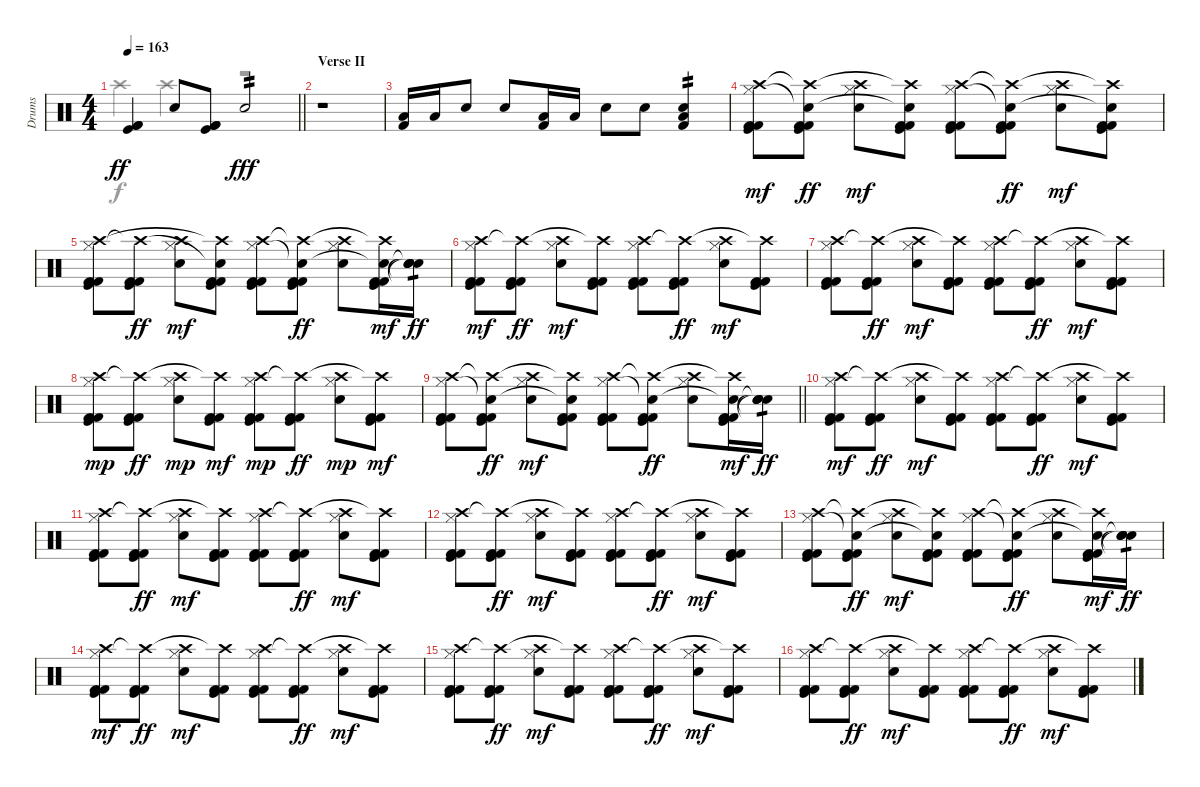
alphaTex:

\track ("Drums" "Drums") {instrument percussion}
\staff {score}
\articulation defaults
\voice
\ts (4 4)
\tempo 163
\clef neutral
\barLineRight lightlight
\ks c
("Kick (hit) 2" "Kick (hit) 2" "Kick (hit)").4{dy ff} "Electric Snare (hit)".8 ("Kick (hit) 2" "Kick (hit) 2" "Kick (hit)").8 "Electric Snare (hit)".2{tp 2 dy fff} |
\section ("" "Verse II")
r.1 |
("Low Floor Tom (hit)" "Kick (hit) 2").16 "Low Tom (hit)".16 "Electric Snare (hit)".8 "Electric Snare (hit)".8 ("Low Floor Tom (hit)" "Kick (hit) 2").16 "Low Tom (hit)".16 "Electric Snare (hit)".8 "Electric Snare (hit)".8 ("Kick (hit) 2" "Low Tom (hit)" "Electric Snare (hit)").4{tp 2} |
("Kick (hit) 2" "Kick (hit) 2" "Kick (hit)" "Hi-Hat (closed)" "Crash high (hit)").8{dy mf} ("Kick (hit) 2" "Kick (hit) 2" "Kick (hit)" "Snare (hit)"{t} "Crash high (hit)"{t}).8{dy ff} ("Electric Snare (hit)" "Hi-Hat (closed)" "Crash high (hit)").8{dy mf} ("Kick (hit) 2" "Kick (hit) 2" "Kick (hit)" "Snare (hit)"{t} "Crash high (hit)"{t}).8 ("Kick (hit) 2" "Kick (hit) 2" "Kick (hit)" "Hi-Hat (closed)" "Crash high (hit)").8 ("Kick (hit) 2" "Kick (hit) 2" "Kick (hit)" "Snare (hit)"{t} "Crash high (hit)"{t}).8{dy ff} ("Electric Snare (hit)" "Hi-Hat (closed)" "Crash high (hit)").8{dy mf} ("Kick (hit) 2" "Kick (hit) 2" "Kick (hit)" "Snare (hit)"{t} "Crash high (hit)"{t}).8 |
("Kick (hit) 2" "Kick (hit) 2" "Kick (hit)" "Hi-Hat (closed)" "Crash high (hit)").8 ("Kick (hit) 2" "Kick (hit) 2" "Kick (hit)" "Crash high (hit)"{t}).8{dy ff} ("Electric Snare (hit)" "Hi-Hat (closed)" "Crash high (hit)").8{dy mf} ("Kick (hit) 2" "Kick (hit) 2" "Kick (hit)" "Snare (hit)"{t} "Crash high (hit)"{t}).8 ("Kick (hit) 2" "Kick (hit) 2" "Kick (hit)" "Hi-Hat (closed)" "Crash high (hit)").8 ("Kick (hit) 2" "Kick (hit) 2" "Kick (hit)" "Snare (hit)"{t} "Crash high (hit)"{t}).8{dy ff} ("Electric Snare (hit)" "Hi-Hat (closed)" "Crash high (hit)").8 ("Kick (hit) 2" "Kick (hit) 2" "Kick (hit)" "Snare (hit)"{t} "Crash high (hit)"{t}).16{dy mf} ("Snare (hit)"{t} "Electric Snare (hit)" "Snare (hit)"{t} "Snare (hit)"{t}).16{tp 1 dy ff} |
("Kick (hit) 2" "Kick (hit) 2" "Kick (hit)" "Hi-Hat (closed)" "Crash high (hit)").8{dy mf} ("Kick (hit) 2" "Kick (hit) 2" "Kick (hit)" "Crash high (hit)"{t}).8{dy ff} ("Electric Snare (hit)" "Hi-Hat (closed)" "Crash high (hit)").8{dy mf} ("Kick (hit) 2" "Kick (hit) 2" "Kick (hit)" "Crash high (hit)"{t}).8 ("Kick (hit) 2" "Kick (hit) 2" "Kick (hit)" "Hi-Hat (closed)" "Crash high (hit)").8 ("Kick (hit) 2" "Kick (hit) 2" "Kick (hit)" "Crash high (hit)"{t}).8{dy ff} ("Electric Snare (hit)" "Hi-Hat (closed)" "Crash high (hit)").8{dy mf} ("Kick (hit) 2" "Kick (hit) 2" "Kick (hit)" "Crash high (hit)"{t}).8 |
("Kick (hit) 2" "Kick (hit) 2" "Kick (hit)" "Hi-Hat (closed)" "Crash high (hit)").8 ("Kick (hit) 2" "Kick (hit) 2" "Kick (hit)" "Crash high (hit)"{t}).8{dy ff} ("Electric Snare (hit)" "Hi-Hat (closed)" "Crash high (hit)").8{dy mf} ("Kick (hit) 2" "Kick (hit) 2" "Kick (hit)" "Crash high (hit)"{t}).8 ("Kick (hit) 2" "Kick (hit) 2" "Kick (hit)" "Hi-Hat (closed)" "Crash high (hit)").8 ("Kick (hit) 2" "Kick (hit) 2" "Kick (hit)" "Crash high (hit)"{t}).8{dy ff} ("Electric Snare (hit)" "Hi-Hat (closed)" "Crash high (hit)").8{dy mf} ("Kick (hit) 2" "Kick (hit) 2" "Kick (hit)" "Crash high (hit)"{t}).8 |
("Kick (hit) 2" "Kick (hit) 2" "Kick (hit)" "Hi-Hat (closed)" "Crash high (hit)").8{dy mp} ("Kick (hit) 2" "Kick (hit) 2" "Kick (hit)" "Crash high (hit)"{t}).8{dy ff} ("Electric Snare (hit)" "Hi-Hat (closed)" "Crash high (hit)").8{dy mp} ("Kick (hit) 2" "Kick (hit) 2" "Kick (hit)" "Crash high (hit)"{t}).8{dy mf} ("Kick (hit) 2" "Kick (hit) 2" "Kick (hit)" "Hi-Hat (closed)" "Crash high (hit)").8{dy mp} ("Kick (hit) 2" "Kick (hit) 2" "Kick (hit)" "Crash high (hit)"{t}).8{dy ff} ("Electric Snare (hit)" "Hi-Hat (closed)" "Crash high (hit)").8{dy mp} ("Kick (hit) 2" "Kick (hit) 2" "Kick (hit)" "Crash high (hit)"{t}).8{dy mf} |
\barLineRight lightlight
("Kick (hit) 2" "Kick (hit) 2" "Kick (hit)" "Hi-Hat (closed)" "Crash high (hit)").8 ("Kick (hit) 2" "Kick (hit) 2" "Kick (hit)" "Snare (hit)"{t} "Crash high (hit)"{t}).8{dy ff} ("Electric Snare (hit)" "Hi-Hat (closed)" "Crash high (hit)").8{dy mf} ("Kick (hit) 2" "Kick (hit) 2" "Kick (hit)" "Snare (hit)"{t} "Crash high (hit)"{t}).8 ("Kick (hit) 2" "Kick (hit) 2" "Kick (hit)" "Hi-Hat (closed)" "Crash high (hit)").8 ("Kick (hit) 2" "Kick (hit) 2" "Kick (hit)" "Snare (hit)"{t} "Crash high (hit)"{t}).8{dy ff} ("Electric Snare (hit)" "Hi-Hat (closed)" "Crash high (hit)").8 ("Kick (hit) 2" "Kick (hit) 2" "Kick (hit)" "Snare (hit)"{t} "Crash high (hit)"{t}).16{dy mf} ("Snare (hit)"{t} "Electric Snare (hit)" "Snare (hit)"{t} "Snare (hit)"{t}).16{tp 1 dy ff} |
("Kick (hit) 2" "Kick (hit) 2" "Kick (hit)" "Hi-Hat (closed)" "Crash high (hit)").8{dy mf} ("Kick (hit) 2" "Kick (hit) 2" "Kick (hit)" "Crash high (hit)"{t}).8{dy ff} ("Electric Snare (hit)" "Hi-Hat (closed)" "Crash high (hit)").8{dy mf} ("Kick (hit) 2" "Kick (hit) 2" "Kick (hit)" "Crash high (hit)"{t}).8 ("Kick (hit) 2" "Kick (hit) 2" "Kick (hit)" "Hi-Hat (closed)" "Crash high (hit)").8 ("Kick (hit) 2" "Kick (hit) 2" "Kick (hit)" "Crash high (hit)"{t}).8{dy ff} ("Electric Snare (hit)" "Hi-Hat (closed)" "Crash high (hit)").8{dy mf} ("Kick (hit) 2" "Kick (hit) 2" "Kick (hit)" "Crash high (hit)"{t}).8 |
("Kick (hit) 2" "Kick (hit) 2" "Kick (hit)" "Hi-Hat (closed)" "Crash high (hit)").8 ("Kick (hit) 2" "Kick (hit) 2" "Kick (hit)" "Crash high (hit)"{t}).8{dy ff} ("Electric Snare (hit)" "Hi-Hat (closed)" "Crash high (hit)").8{dy mf} ("Kick (hit) 2" "Kick (hit) 2" "Kick (hit)" "Crash high (hit)"{t}).8 ("Kick (hit) 2" "Kick (hit) 2" "Kick (hit)" "Hi-Hat (closed)" "Crash high (hit)").8 ("Kick (hit) 2" "Kick (hit) 2" "Kick (hit)" "Crash high (hit)"{t}).8{dy ff} ("Electric Snare (hit)" "Hi-Hat (closed)" "Crash high (hit)").8{dy mf} ("Kick (hit) 2" "Kick (hit) 2" "Kick (hit)" "Crash high (hit)"{t}).8 |
("Kick (hit) 2" "Kick (hit) 2" "Kick (hit)" "Hi-Hat (closed)" "Crash high (hit)").8 ("Kick (hit) 2" "Kick (hit) 2" "Kick (hit)" "Crash high (hit)"{t}).8{dy ff} ("Electric Snare (hit)" "Hi-Hat (closed)" "Crash high (hit)").8{dy mf} ("Kick (hit) 2" "Kick (hit) 2" "Kick (hit)" "Crash high (hit)"{t}).8 ("Kick (hit) 2" "Kick (hit) 2" "Kick (hit)" "Hi-Hat (closed)" "Crash high (hit)").8 ("Kick (hit) 2" "Kick (hit) 2" "Kick (hit)" "Crash high (hit)"{t}).8{dy ff} ("Electric Snare (hit)" "Hi-Hat (closed)" "Crash high (hit)").8{dy mf} ("Kick (hit) 2" "Kick (hit) 2" "Kick (hit)" "Crash high (hit)"{t}).8 |
("Kick (hit) 2" "Kick (hit) 2" "Kick (hit)" "Hi-Hat (closed)" "Crash high (hit)").8 ("Kick (hit) 2" "Kick (hit) 2" "Kick (hit)" "Snare (hit)"{t} "Crash high (hit)"{t}).8{dy ff} ("Electric Snare (hit)" "Hi-Hat (closed)" "Crash high (hit)").8{dy mf} ("Kick (hit) 2" "Kick (hit) 2" "Kick (hit)" "Snare (hit)"{t} "Crash high (hit)"{t}).8 ("Kick (hit) 2" "Kick (hit) 2" "Kick (hit)" "Hi-Hat (closed)" "Crash high (hit)").8 ("Kick (hit) 2" "Kick (hit) 2" "Kick (hit)" "Snare (hit)"{t} "Crash high (hit)"{t}).8{dy ff} ("Electric Snare (hit)" "Hi-Hat (closed)" "Crash high (hit)").8 ("Kick (hit) 2" "Kick (hit) 2" "Kick (hit)" "Snare (hit)"{t} "Crash high (hit)"{t}).16{dy mf} ("Snare (hit)"{t} "Electric Snare (hit)" "Snare (hit)"{t} "Snare (hit)"{t}).16{tp 1 dy ff} |
("Kick (hit) 2" "Kick (hit) 2" "Kick (hit)" "Hi-Hat (closed)" "Crash high (hit)").8{dy mf} ("Kick (hit) 2" "Kick (hit) 2" "Kick (hit)" "Crash high (hit)"{t}).8{dy ff} ("Electric Snare (hit)" "Hi-Hat (closed)" "Crash high (hit)").8{dy mf} ("Kick (hit) 2" "Kick (hit) 2" "Kick (hit)" "Crash high (hit)"{t}).8 ("Kick (hit) 2" "Kick (hit) 2" "Kick (hit)" "Hi-Hat (closed)" "Crash high (hit)").8 ("Kick (hit) 2" "Kick (hit) 2" "Kick (hit)" "Crash high (hit)"{t}).8{dy ff} ("Electric Snare (hit)" "Hi-Hat (closed)" "Crash high (hit)").8{dy mf} ("Kick (hit) 2" "Kick (hit) 2" "Kick (hit)" "Crash high (hit)"{t}).8 |
("Kick (hit) 2" "Kick (hit) 2" "Kick (hit)" "Hi-Hat (closed)" "Crash high (hit)").8 ("Kick (hit) 2" "Kick (hit) 2" "Kick (hit)" "Crash high (hit)"{t}).8{dy ff} ("Electric Snare (hit)" "Hi-Hat (closed)" "Crash high (hit)").8{dy mf} ("Kick (hit) 2" "Kick (hit) 2" "Kick (hit)" "Crash high (hit)"{t}).8 ("Kick (hit) 2" "Kick (hit) 2" "Kick (hit)" "Hi-Hat (closed)" "Crash high (hit)").8 ("Kick (hit) 2" "Kick (hit) 2" "Kick (hit)" "Crash high (hit)"{t}).8{dy ff} ("Electric Snare (hit)" "Hi-Hat (closed)" "Crash high (hit)").8{dy mf} ("Kick (hit) 2" "Kick (hit) 2" "Kick (hit)" "Crash high (hit)"{t}).8 |
("Kick (hit) 2" "Kick (hit) 2" "Kick (hit)" "Hi-Hat (closed)" "Crash high (hit)").8 ("Kick (hit) 2" "Kick (hit) 2" "Kick (hit)" "Crash high (hit)"{t}).8{dy ff} ("Electric Snare (hit)" "Hi-Hat (closed)" "Crash high (hit)").8{dy mf} ("Kick (hit) 2" "Kick (hit) 2" "Kick (hit)" "Crash high (hit)"{t}).8 ("Kick (hit) 2" "Kick (hit) 2" "Kick (hit)" "Hi-Hat (closed)" "Crash high (hit)").8 ("Kick (hit) 2" "Kick (hit) 2" "Kick (hit)" "Crash high (hit)"{t}).8{dy ff} ("Electric Snare (hit)" "Hi-Hat (closed)" "Crash high (hit)").8{dy mf} ("Kick (hit) 2" "Kick (hit) 2" "Kick (hit)" "Crash high (hit)"{t}).8
\voice
\clef neutral
\ottava regular
\simile none
\barLineRight lightlight
\ks c "Crash high (hit)".4{dy f} "Crash high (hit)".4
r.2 |
|
|
|
|
|
|
|
\barLineRight lightlight
|
|
|
|
|
|
|
